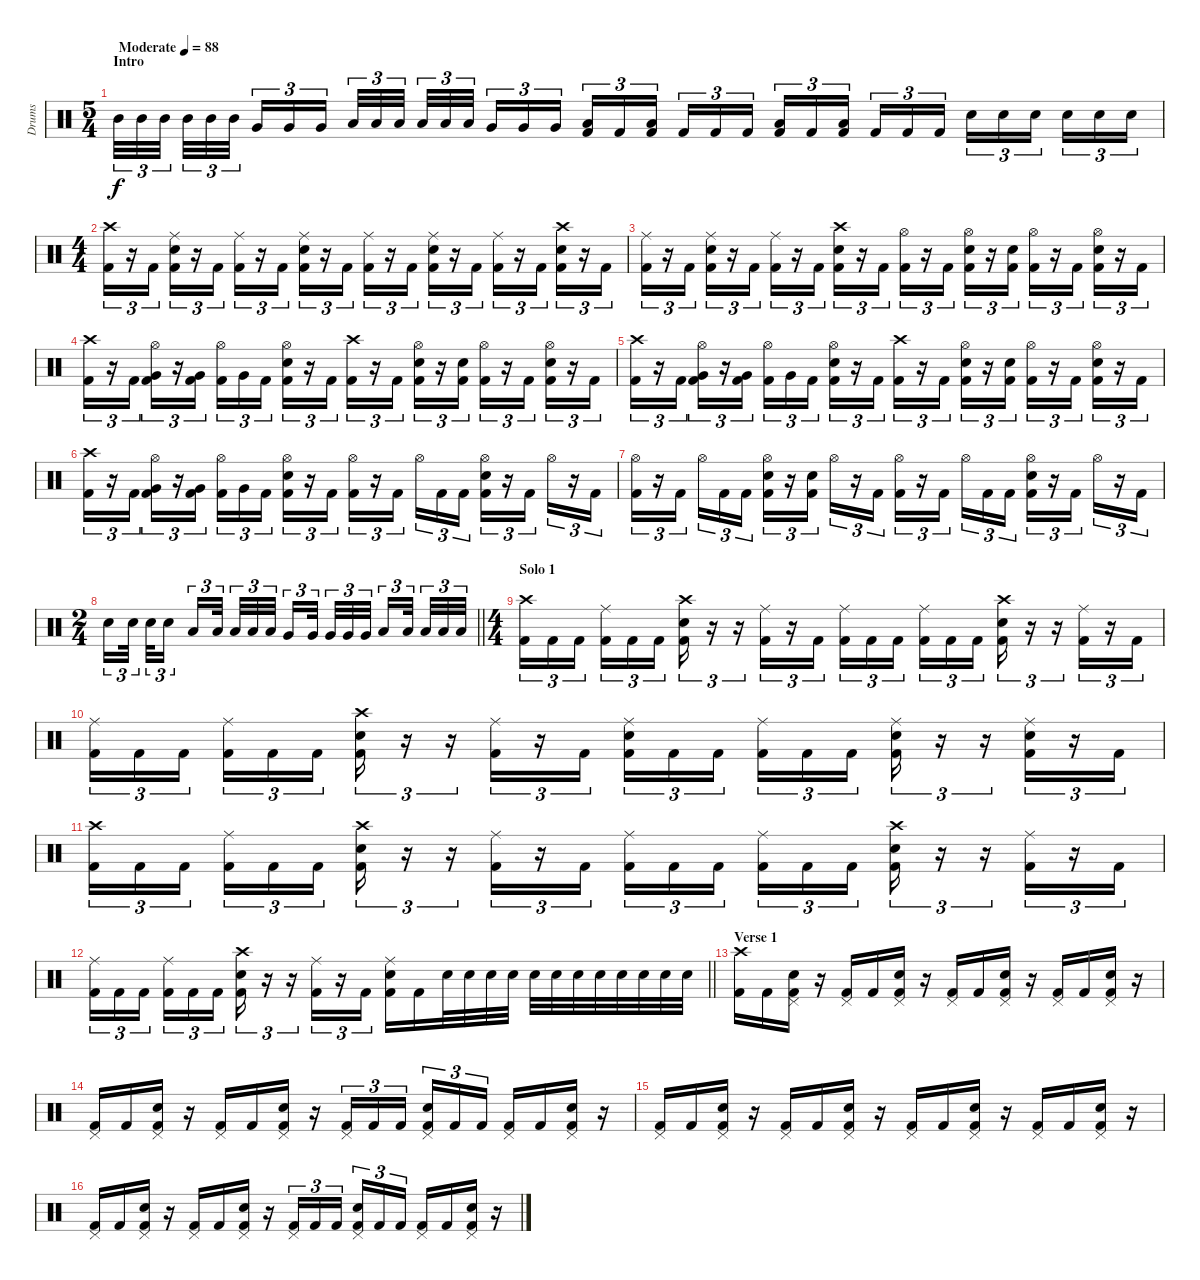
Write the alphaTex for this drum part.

\track ("Drums" "Drums") {instrument percussion}
\staff {score}
\articulation defaults
\ts (5 4)
\section ("" "Intro")
\tempo (88 "Moderate")
\clef neutral
\ks c "Mid Tom (hit)".32{tu (3 2) dy f} "Mid Tom (hit)".32{tu (3 2)} "Mid Tom (hit)".32{tu (3 2) beam splitsecondary} "Mid Tom (hit)".32{tu (3 2)} "Mid Tom (hit)".32{tu (3 2)} "Mid Tom (hit)".32{tu (3 2) beam splitsecondary} "Very Low Tom (hit)".16{tu (3 2)} "Very Low Tom (hit)".16{tu (3 2)} "Very Low Tom (hit)".16{tu (3 2)} "Low Tom (hit)".32{tu (3 2)} "Low Tom (hit)".32{tu (3 2)} "Low Tom (hit)".32{tu (3 2) beam splitsecondary} "Low Tom (hit)".32{tu (3 2)} "Low Tom (hit)".32{tu (3 2)} "Low Tom (hit)".32{tu (3 2) beam splitsecondary} "Very Low Tom (hit)".16{tu (3 2)} "Very Low Tom (hit)".16{tu (3 2)} "Very Low Tom (hit)".16{tu (3 2)}
("Low Floor Tom (hit)" "Kick (hit) 2").16{tu (3 2)} "Kick (hit) 2".16{tu (3 2)} ("Low Floor Tom (hit)" "Kick (hit) 2").16{tu (3 2) beam splitsecondary} "Kick (hit) 2".16{tu (3 2)} "Kick (hit) 2".16{tu (3 2)} "Kick (hit) 2".16{tu (3 2)} ("Low Floor Tom (hit)" "Kick (hit) 2").16{tu (3 2)} "Kick (hit) 2".16{tu (3 2)} ("Low Floor Tom (hit)" "Kick (hit) 2").16{tu (3 2) beam splitsecondary} "Kick (hit) 2".16{tu (3 2)} "Kick (hit) 2".16{tu (3 2)} "Kick (hit) 2".16{tu (3 2)} "Snare (hit) 2".16{tu (3 2)} "Snare (hit) 2".16{tu (3 2)} "Snare (hit) 2".16{tu (3 2) beam splitsecondary} "Snare (hit) 2".16{tu (3 2)} "Snare (hit) 2".16{tu (3 2)} "Snare (hit) 2".16{tu (3 2)} |
\ts (4 4)
("Crash high (hit)" "Kick (hit) 2").16{tu (3 2)} r.16{tu (3 2)} "Kick (hit) 2".16{tu (3 2)} ("Ride (middle)" "Snare (hit) 2" "Kick (hit) 2").16{tu (3 2)} r.16{tu (3 2)} "Kick (hit) 2".16{tu (3 2)} ("Ride (middle)" "Kick (hit) 2").16{tu (3 2)} r.16{tu (3 2)} "Kick (hit) 2".16{tu (3 2)} ("Ride (middle)" "Snare (hit) 2" "Kick (hit) 2").16{tu (3 2)} r.16{tu (3 2)} "Kick (hit) 2".16{tu (3 2)} ("Ride (middle)" "Kick (hit) 2").16{tu (3 2)} r.16{tu (3 2)} "Kick (hit) 2".16{tu (3 2)} ("Ride (middle)" "Snare (hit) 2" "Kick (hit) 2").16{tu (3 2)} r.16{tu (3 2)} "Kick (hit) 2".16{tu (3 2)} ("Ride (middle)" "Kick (hit) 2").16{tu (3 2)} r.16{tu (3 2)} "Kick (hit) 2".16{tu (3 2)} ("Crash high (hit)" "Snare (hit) 2" "Kick (hit) 2").16{tu (3 2)} r.16{tu (3 2)} "Kick (hit) 2".16{tu (3 2)} |
("Ride (middle)" "Kick (hit) 2").16{tu (3 2)} r.16{tu (3 2)} "Kick (hit) 2".16{tu (3 2)} ("Ride (middle)" "Snare (hit) 2" "Kick (hit) 2").16{tu (3 2)} r.16{tu (3 2)} "Kick (hit) 2".16{tu (3 2)} ("Ride (middle)" "Kick (hit) 2").16{tu (3 2)} r.16{tu (3 2)} "Kick (hit) 2".16{tu (3 2)} ("Crash high (hit)" "Snare (hit) 2" "Kick (hit) 2").16{tu (3 2)} r.16{tu (3 2)} "Kick (hit) 2".16{tu (3 2)} ("Hi-Hat (open)" "Kick (hit) 2").16{tu (3 2)} r.16{tu (3 2)} "Kick (hit) 2".16{tu (3 2)} ("Hi-Hat (open)" "Snare (hit) 2" "Kick (hit) 2").16{tu (3 2)} r.16{tu (3 2)} ("Snare (hit) 2" "Kick (hit) 2").16{tu (3 2)} ("Hi-Hat (open)" "Kick (hit) 2").16{tu (3 2)} r.16{tu (3 2)} "Kick (hit) 2".16{tu (3 2)} ("Hi-Hat (open)" "Snare (hit) 2" "Kick (hit) 2").16{tu (3 2)} r.16{tu (3 2)} "Kick (hit) 2".16{tu (3 2)} |
("Crash high (hit)" "Kick (hit) 2").16{tu (3 2)} r.16{tu (3 2)} "Kick (hit) 2".16{tu (3 2)} ("Hi-Hat (open)" "Very Low Tom (hit)" "Kick (hit) 2").16{tu (3 2)} r.16{tu (3 2)} ("Very Low Tom (hit)" "Kick (hit) 2").16{tu (3 2)} ("Hi-Hat (open)" "Kick (hit) 2").16{tu (3 2)} "Very Low Tom (hit)".16{tu (3 2)} "Kick (hit) 2".16{tu (3 2) beam splitsecondary} ("Hi-Hat (open)" "Snare (hit) 2" "Kick (hit) 2").16{tu (3 2)} r.16{tu (3 2)} "Kick (hit) 2".16{tu (3 2)} ("Crash high (hit)" "Kick (hit) 2").16{tu (3 2)} r.16{tu (3 2)} "Kick (hit) 2".16{tu (3 2)} ("Hi-Hat (open)" "Snare (hit) 2" "Kick (hit) 2").16{tu (3 2)} r.16{tu (3 2)} ("Snare (hit) 2" "Kick (hit) 2").16{tu (3 2)} ("Hi-Hat (open)" "Kick (hit) 2").16{tu (3 2)} r.16{tu (3 2)} "Kick (hit) 2".16{tu (3 2)} ("Hi-Hat (open)" "Snare (hit) 2" "Kick (hit) 2").16{tu (3 2)} r.16{tu (3 2)} "Kick (hit) 2".16{tu (3 2)} |
("Crash high (hit)" "Kick (hit) 2").16{tu (3 2)} r.16{tu (3 2)} "Kick (hit) 2".16{tu (3 2)} ("Hi-Hat (open)" "Very Low Tom (hit)" "Kick (hit) 2").16{tu (3 2)} r.16{tu (3 2)} ("Very Low Tom (hit)" "Kick (hit) 2").16{tu (3 2)} ("Hi-Hat (open)" "Kick (hit) 2").16{tu (3 2)} "Very Low Tom (hit)".16{tu (3 2)} "Kick (hit) 2".16{tu (3 2) beam splitsecondary} ("Hi-Hat (open)" "Snare (hit) 2" "Kick (hit) 2").16{tu (3 2)} r.16{tu (3 2)} "Kick (hit) 2".16{tu (3 2)} ("Crash high (hit)" "Kick (hit) 2").16{tu (3 2)} r.16{tu (3 2)} "Kick (hit) 2".16{tu (3 2)} ("Hi-Hat (open)" "Snare (hit) 2" "Kick (hit) 2").16{tu (3 2)} r.16{tu (3 2)} ("Snare (hit) 2" "Kick (hit) 2").16{tu (3 2)} ("Hi-Hat (open)" "Kick (hit) 2").16{tu (3 2)} r.16{tu (3 2)} "Kick (hit) 2".16{tu (3 2)} ("Hi-Hat (open)" "Snare (hit) 2" "Kick (hit) 2").16{tu (3 2)} r.16{tu (3 2)} "Kick (hit) 2".16{tu (3 2)} |
("Crash high (hit)" "Kick (hit) 2").16{tu (3 2)} r.16{tu (3 2)} "Kick (hit) 2".16{tu (3 2)} ("Hi-Hat (open)" "Very Low Tom (hit)" "Kick (hit) 2").16{tu (3 2)} r.16{tu (3 2)} ("Very Low Tom (hit)" "Kick (hit) 2").16{tu (3 2)} ("Hi-Hat (open)" "Kick (hit) 2").16{tu (3 2)} "Very Low Tom (hit)".16{tu (3 2)} "Kick (hit) 2".16{tu (3 2) beam splitsecondary} ("Hi-Hat (open)" "Snare (hit) 2" "Kick (hit) 2").16{tu (3 2)} r.16{tu (3 2)} "Kick (hit) 2".16{tu (3 2)} ("Hi-Hat (open)" "Kick (hit) 2").16{tu (3 2)} r.16{tu (3 2)} "Kick (hit) 2".16{tu (3 2) beam splitsecondary} "Hi-Hat (open)".16{tu (3 2)} "Kick (hit) 2".16{tu (3 2)} "Kick (hit) 2".16{tu (3 2)} ("Hi-Hat (open)" "Snare (hit) 2" "Kick (hit) 2").16{tu (3 2)} r.16{tu (3 2)} "Kick (hit) 2".16{tu (3 2)} "Hi-Hat (open)".16{tu (3 2)} r.16{tu (3 2)} "Kick (hit) 2".16{tu (3 2)} |
("Hi-Hat (open)" "Kick (hit) 2").16{tu (3 2)} r.16{tu (3 2)} "Kick (hit) 2".16{tu (3 2) beam splitsecondary} "Hi-Hat (open)".16{tu (3 2)} "Kick (hit) 2".16{tu (3 2)} "Kick (hit) 2".16{tu (3 2)} ("Hi-Hat (open)" "Snare (hit) 2" "Kick (hit) 2").16{tu (3 2)} r.16{tu (3 2)} ("Snare (hit) 2" "Kick (hit) 2").16{tu (3 2)} "Hi-Hat (open)".16{tu (3 2)} r.16{tu (3 2)} "Kick (hit) 2".16{tu (3 2)} ("Hi-Hat (open)" "Kick (hit) 2").16{tu (3 2)} r.16{tu (3 2)} "Kick (hit) 2".16{tu (3 2) beam splitsecondary} "Hi-Hat (open)".16{tu (3 2)} "Kick (hit) 2".16{tu (3 2)} "Kick (hit) 2".16{tu (3 2)} ("Hi-Hat (open)" "Snare (hit) 2" "Kick (hit) 2").16{tu (3 2)} r.16{tu (3 2)} "Kick (hit) 2".16{tu (3 2)} "Hi-Hat (open)".16{tu (3 2)} r.16{tu (3 2)} "Kick (hit) 2".16{tu (3 2)} |
\ts (2 4)
\barLineRight lightlight "Snare (hit) 2".16{tu (3 2)} "Snare (hit) 2".32{tu (3 2) beam splitsecondary} "Snare (hit) 2".32{tu (3 2)} "Snare (hit) 2".16{tu (3 2) beam splitsecondary} "Low Tom (hit)".16{tu (3 2)} "Low Tom (hit)".32{tu (3 2) beam splitsecondary} "Low Tom (hit)".32{tu (3 2)} "Low Tom (hit)".32{tu (3 2)} "Low Tom (hit)".32{tu (3 2)} "Very Low Tom (hit)".16{tu (3 2)} "Very Low Tom (hit)".32{tu (3 2) beam splitsecondary} "Very Low Tom (hit)".32{tu (3 2)} "Very Low Tom (hit)".32{tu (3 2)} "Very Low Tom (hit)".32{tu (3 2) beam splitsecondary} "Low Floor Tom (hit)".16{tu (3 2)} "Low Floor Tom (hit)".32{tu (3 2) beam splitsecondary} "Low Floor Tom (hit)".32{tu (3 2)} "Low Floor Tom (hit)".32{tu (3 2)} "Low Floor Tom (hit)".32{tu (3 2)}
|
\ts (4 4)
\section ("" "Solo 1")
("Crash high (hit)" "Kick (hit) 2").16{tu (3 2)} "Kick (hit) 2".16{tu (3 2)} "Kick (hit) 2".16{tu (3 2) beam splitsecondary} ("Ride (middle)" "Kick (hit) 2").16{tu (3 2)} "Kick (hit) 2".16{tu (3 2)} "Kick (hit) 2".16{tu (3 2)} ("Crash high (hit)" "Snare (hit) 2" "Kick (hit) 2").16{tu (3 2)} r.16{tu (3 2)} r.16{tu (3 2)} ("Ride (middle)" "Kick (hit) 2").16{tu (3 2)} r.16{tu (3 2)} "Kick (hit) 2".16{tu (3 2)} ("Ride (middle)" "Kick (hit) 2").16{tu (3 2)} "Kick (hit) 2".16{tu (3 2)} "Kick (hit) 2".16{tu (3 2) beam splitsecondary} ("Ride (middle)" "Kick (hit) 2").16{tu (3 2)} "Kick (hit) 2".16{tu (3 2)} "Kick (hit) 2".16{tu (3 2)} ("Crash high (hit)" "Snare (hit) 2" "Kick (hit) 2").16{tu (3 2)} r.16{tu (3 2)} r.16{tu (3 2)} ("Ride (middle)" "Kick (hit) 2").16{tu (3 2)} r.16{tu (3 2)} "Kick (hit) 2".16{tu (3 2)} |
("Ride (middle)" "Kick (hit) 2").16{tu (3 2)} "Kick (hit) 2".16{tu (3 2)} "Kick (hit) 2".16{tu (3 2) beam splitsecondary} ("Ride (middle)" "Kick (hit) 2").16{tu (3 2)} "Kick (hit) 2".16{tu (3 2)} "Kick (hit) 2".16{tu (3 2)} ("Crash high (hit)" "Snare (hit) 2" "Kick (hit) 2").16{tu (3 2)} r.16{tu (3 2)} r.16{tu (3 2)} ("Ride (middle)" "Kick (hit) 2").16{tu (3 2)} r.16{tu (3 2)} "Kick (hit) 2".16{tu (3 2)} ("Ride (middle)" "Snare (hit) 2" "Kick (hit) 2").16{tu (3 2)} "Kick (hit) 2".16{tu (3 2)} "Kick (hit) 2".16{tu (3 2) beam splitsecondary} ("Ride (middle)" "Kick (hit) 2").16{tu (3 2)} "Kick (hit) 2".16{tu (3 2)} "Kick (hit) 2".16{tu (3 2)} ("Ride (middle)" "Snare (hit) 2" "Kick (hit) 2").16{tu (3 2)} r.16{tu (3 2)} r.16{tu (3 2)} ("Ride (middle)" "Snare (hit) 2" "Kick (hit) 2").16{tu (3 2)} r.16{tu (3 2)} "Kick (hit) 2".16{tu (3 2)} |
("Crash high (hit)" "Kick (hit) 2").16{tu (3 2)} "Kick (hit) 2".16{tu (3 2)} "Kick (hit) 2".16{tu (3 2) beam splitsecondary} ("Ride (middle)" "Kick (hit) 2").16{tu (3 2)} "Kick (hit) 2".16{tu (3 2)} "Kick (hit) 2".16{tu (3 2)} ("Crash high (hit)" "Snare (hit) 2" "Kick (hit) 2").16{tu (3 2)} r.16{tu (3 2)} r.16{tu (3 2)} ("Ride (middle)" "Kick (hit) 2").16{tu (3 2)} r.16{tu (3 2)} "Kick (hit) 2".16{tu (3 2)} ("Ride (middle)" "Kick (hit) 2").16{tu (3 2)} "Kick (hit) 2".16{tu (3 2)} "Kick (hit) 2".16{tu (3 2) beam splitsecondary} ("Ride (middle)" "Kick (hit) 2").16{tu (3 2)} "Kick (hit) 2".16{tu (3 2)} "Kick (hit) 2".16{tu (3 2)} ("Crash high (hit)" "Snare (hit) 2" "Kick (hit) 2").16{tu (3 2)} r.16{tu (3 2)} r.16{tu (3 2)} ("Ride (middle)" "Kick (hit) 2").16{tu (3 2)} r.16{tu (3 2)} "Kick (hit) 2".16{tu (3 2)} |
\barLineRight lightlight
("Ride (middle)" "Kick (hit) 2").16{tu (3 2)} "Kick (hit) 2".16{tu (3 2)} "Kick (hit) 2".16{tu (3 2) beam splitsecondary} ("Ride (middle)" "Kick (hit) 2").16{tu (3 2)} "Kick (hit) 2".16{tu (3 2)} "Kick (hit) 2".16{tu (3 2)} ("Crash high (hit)" "Snare (hit) 2" "Kick (hit) 2").16{tu (3 2)} r.16{tu (3 2)} r.16{tu (3 2)} ("Ride (middle)" "Kick (hit) 2").16{tu (3 2)} r.16{tu (3 2)} "Kick (hit) 2".16{tu (3 2)} ("Ride (middle)" "Snare (hit) 2" "Kick (hit) 2").16 "Kick (hit) 2".16 "Snare (hit) 2".32 "Snare (hit) 2".32 "Snare (hit) 2".32 "Snare (hit) 2".32 "Snare (hit) 2".32 "Snare (hit) 2".32 "Snare (hit) 2".32 "Snare (hit) 2".32 "Snare (hit) 2".32 "Snare (hit) 2".32 "Snare (hit) 2".32 "Snare (hit) 2".32 |
\section ("" "Verse 1")
("Crash high (hit)" "Kick (hit) 2").16 "Kick (hit) 2".16 ("Pedal Hi-Hat (hit)" "Snare (hit) 2" "Kick (hit) 2").16 r.16 ("Pedal Hi-Hat (hit)" "Kick (hit) 2").16 "Kick (hit) 2".16 ("Pedal Hi-Hat (hit)" "Snare (hit) 2" "Kick (hit) 2").16 r.16 ("Pedal Hi-Hat (hit)" "Kick (hit) 2").16 "Kick (hit) 2".16 ("Pedal Hi-Hat (hit)" "Snare (hit) 2" "Kick (hit) 2").16 r.16 ("Pedal Hi-Hat (hit)" "Kick (hit) 2").16 "Kick (hit) 2".16 ("Pedal Hi-Hat (hit)" "Snare (hit) 2" "Kick (hit) 2").16 r.16 |
("Pedal Hi-Hat (hit)" "Kick (hit) 2").16 "Kick (hit) 2".16 ("Pedal Hi-Hat (hit)" "Snare (hit) 2" "Kick (hit) 2").16 r.16 ("Pedal Hi-Hat (hit)" "Kick (hit) 2").16 "Kick (hit) 2".16 ("Pedal Hi-Hat (hit)" "Snare (hit) 2" "Kick (hit) 2").16 r.16 ("Pedal Hi-Hat (hit)" "Kick (hit) 2").16{tu (3 2)} "Kick (hit) 2".16{tu (3 2)} "Kick (hit) 2".16{tu (3 2) beam splitsecondary} ("Pedal Hi-Hat (hit)" "Snare (hit) 2" "Kick (hit) 2").16{tu (3 2)} "Kick (hit) 2".16{tu (3 2)} "Kick (hit) 2".16{tu (3 2)} ("Pedal Hi-Hat (hit)" "Kick (hit) 2").16 "Kick (hit) 2".16 ("Pedal Hi-Hat (hit)" "Snare (hit) 2" "Kick (hit) 2").16 r.16 |
("Pedal Hi-Hat (hit)" "Kick (hit) 2").16 "Kick (hit) 2".16 ("Pedal Hi-Hat (hit)" "Snare (hit) 2" "Kick (hit) 2").16 r.16 ("Pedal Hi-Hat (hit)" "Kick (hit) 2").16 "Kick (hit) 2".16 ("Pedal Hi-Hat (hit)" "Snare (hit) 2" "Kick (hit) 2").16 r.16 ("Pedal Hi-Hat (hit)" "Kick (hit) 2").16 "Kick (hit) 2".16 ("Pedal Hi-Hat (hit)" "Snare (hit) 2" "Kick (hit) 2").16 r.16 ("Pedal Hi-Hat (hit)" "Kick (hit) 2").16 "Kick (hit) 2".16 ("Pedal Hi-Hat (hit)" "Snare (hit) 2" "Kick (hit) 2").16 r.16 |
("Pedal Hi-Hat (hit)" "Kick (hit) 2").16 "Kick (hit) 2".16 ("Pedal Hi-Hat (hit)" "Snare (hit) 2" "Kick (hit) 2").16 r.16 ("Pedal Hi-Hat (hit)" "Kick (hit) 2").16 "Kick (hit) 2".16 ("Pedal Hi-Hat (hit)" "Snare (hit) 2" "Kick (hit) 2").16 r.16 ("Pedal Hi-Hat (hit)" "Kick (hit) 2").16{tu (3 2)} "Kick (hit) 2".16{tu (3 2)} "Kick (hit) 2".16{tu (3 2) beam splitsecondary} ("Pedal Hi-Hat (hit)" "Snare (hit) 2" "Kick (hit) 2").16{tu (3 2)} "Kick (hit) 2".16{tu (3 2)} "Kick (hit) 2".16{tu (3 2)} ("Pedal Hi-Hat (hit)" "Kick (hit) 2").16 "Kick (hit) 2".16 ("Pedal Hi-Hat (hit)" "Snare (hit) 2" "Kick (hit) 2").16 r.16
